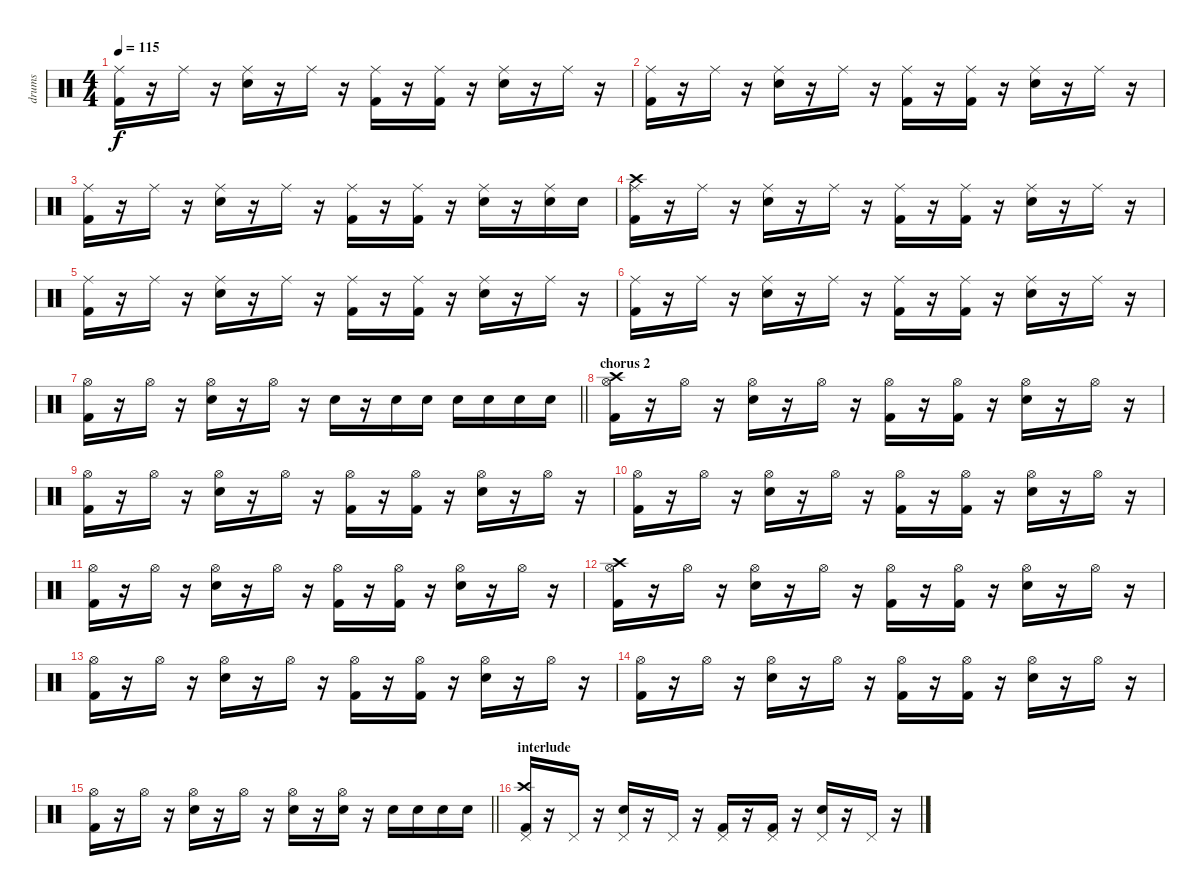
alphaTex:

\track ("drums" "drums") {instrument percussion}
\staff {score}
\articulation defaults
\ts (4 4)
\tempo 115
\clef neutral
\ks c
("Kick (hit) 2" "Ride (middle)").16{dy f} r.16 "Ride (middle)".16 r.16 ("Electric Snare (hit)" "Ride (middle)").16 r.16 "Ride (middle)".16 r.16 ("Kick (hit) 2" "Ride (middle)").16 r.16 ("Kick (hit) 2" "Ride (middle)").16 r.16 ("Electric Snare (hit)" "Ride (middle)").16 r.16 "Ride (middle)".16 r.16 |
("Kick (hit) 2" "Ride (middle)").16 r.16 "Ride (middle)".16 r.16 ("Electric Snare (hit)" "Ride (middle)").16 r.16 "Ride (middle)".16 r.16 ("Kick (hit) 2" "Ride (middle)").16 r.16 ("Kick (hit) 2" "Ride (middle)").16 r.16 ("Electric Snare (hit)" "Ride (middle)").16 r.16 "Ride (middle)".16 r.16 |
("Kick (hit) 2" "Ride (middle)").16 r.16 "Ride (middle)".16 r.16 ("Electric Snare (hit)" "Ride (middle)").16 r.16 "Ride (middle)".16 r.16 ("Kick (hit) 2" "Ride (middle)").16 r.16 ("Kick (hit) 2" "Ride (middle)").16 r.16 ("Electric Snare (hit)" "Ride (middle)").16 r.16 ("Electric Snare (hit)" "Ride (middle)").16 "Electric Snare (hit)".16 |
("Kick (hit) 2" "Ride (middle)" "Crash high (hit)").16 r.16 "Ride (middle)".16 r.16 ("Electric Snare (hit)" "Ride (middle)").16 r.16 "Ride (middle)".16 r.16 ("Kick (hit) 2" "Ride (middle)").16 r.16 ("Kick (hit) 2" "Ride (middle)").16 r.16 ("Electric Snare (hit)" "Ride (middle)").16 r.16 "Ride (middle)".16 r.16 |
("Kick (hit) 2" "Ride (middle)").16 r.16 "Ride (middle)".16 r.16 ("Electric Snare (hit)" "Ride (middle)").16 r.16 "Ride (middle)".16 r.16 ("Kick (hit) 2" "Ride (middle)").16 r.16 ("Kick (hit) 2" "Ride (middle)").16 r.16 ("Electric Snare (hit)" "Ride (middle)").16 r.16 "Ride (middle)".16 r.16 |
("Kick (hit) 2" "Ride (middle)").16 r.16 "Ride (middle)".16 r.16 ("Electric Snare (hit)" "Ride (middle)").16 r.16 "Ride (middle)".16 r.16 ("Kick (hit) 2" "Ride (middle)").16 r.16 ("Kick (hit) 2" "Ride (middle)").16 r.16 ("Electric Snare (hit)" "Ride (middle)").16 r.16 "Ride (middle)".16 r.16 |
\barLineRight lightlight
("Kick (hit) 2" "Hi-Hat (open)").16 r.16 "Hi-Hat (open)".16 r.16 ("Electric Snare (hit)" "Hi-Hat (open)").16 r.16 "Hi-Hat (open)".16 r.16 "Electric Snare (hit)".16 r.16 "Electric Snare (hit)".16 "Electric Snare (hit)".16 "Electric Snare (hit)".16 "Electric Snare (hit)".16 "Electric Snare (hit)".16 "Electric Snare (hit)".16 |
\section ("" "chorus 2")
("Kick (hit) 2" "Hi-Hat (open)" "Crash high (hit)").16 r.16 "Hi-Hat (open)".16 r.16 ("Electric Snare (hit)" "Hi-Hat (open)").16 r.16 "Hi-Hat (open)".16 r.16 ("Kick (hit) 2" "Hi-Hat (open)").16 r.16 ("Kick (hit) 2" "Hi-Hat (open)").16 r.16 ("Electric Snare (hit)" "Hi-Hat (open)").16 r.16 "Hi-Hat (open)".16 r.16 |
("Kick (hit) 2" "Hi-Hat (open)").16 r.16 "Hi-Hat (open)".16 r.16 ("Electric Snare (hit)" "Hi-Hat (open)").16 r.16 "Hi-Hat (open)".16 r.16 ("Kick (hit) 2" "Hi-Hat (open)").16 r.16 ("Kick (hit) 2" "Hi-Hat (open)").16 r.16 ("Electric Snare (hit)" "Hi-Hat (open)").16 r.16 "Hi-Hat (open)".16 r.16 |
("Kick (hit) 2" "Hi-Hat (open)").16 r.16 "Hi-Hat (open)".16 r.16 ("Electric Snare (hit)" "Hi-Hat (open)").16 r.16 "Hi-Hat (open)".16 r.16 ("Kick (hit) 2" "Hi-Hat (open)").16 r.16 ("Kick (hit) 2" "Hi-Hat (open)").16 r.16 ("Electric Snare (hit)" "Hi-Hat (open)").16 r.16 "Hi-Hat (open)".16 r.16 |
("Kick (hit) 2" "Hi-Hat (open)").16 r.16 "Hi-Hat (open)".16 r.16 ("Electric Snare (hit)" "Hi-Hat (open)").16 r.16 "Hi-Hat (open)".16 r.16 ("Kick (hit) 2" "Hi-Hat (open)").16 r.16 ("Kick (hit) 2" "Hi-Hat (open)").16 r.16 ("Electric Snare (hit)" "Hi-Hat (open)").16 r.16 "Hi-Hat (open)".16 r.16 |
("Kick (hit) 2" "Hi-Hat (open)" "Crash high (hit)").16 r.16 "Hi-Hat (open)".16 r.16 ("Electric Snare (hit)" "Hi-Hat (open)").16 r.16 "Hi-Hat (open)".16 r.16 ("Kick (hit) 2" "Hi-Hat (open)").16 r.16 ("Kick (hit) 2" "Hi-Hat (open)").16 r.16 ("Electric Snare (hit)" "Hi-Hat (open)").16 r.16 "Hi-Hat (open)".16 r.16 |
("Kick (hit) 2" "Hi-Hat (open)").16 r.16 "Hi-Hat (open)".16 r.16 ("Electric Snare (hit)" "Hi-Hat (open)").16 r.16 "Hi-Hat (open)".16 r.16 ("Kick (hit) 2" "Hi-Hat (open)").16 r.16 ("Kick (hit) 2" "Hi-Hat (open)").16 r.16 ("Electric Snare (hit)" "Hi-Hat (open)").16 r.16 "Hi-Hat (open)".16 r.16 |
("Kick (hit) 2" "Hi-Hat (open)").16 r.16 "Hi-Hat (open)".16 r.16 ("Electric Snare (hit)" "Hi-Hat (open)").16 r.16 "Hi-Hat (open)".16 r.16 ("Kick (hit) 2" "Hi-Hat (open)").16 r.16 ("Kick (hit) 2" "Hi-Hat (open)").16 r.16 ("Electric Snare (hit)" "Hi-Hat (open)").16 r.16 "Hi-Hat (open)".16 r.16 |
\barLineRight lightlight
("Kick (hit) 2" "Hi-Hat (open)").16 r.16 "Hi-Hat (open)".16 r.16 ("Electric Snare (hit)" "Hi-Hat (open)").16 r.16 "Hi-Hat (open)".16 r.16 ("Electric Snare (hit)" "Hi-Hat (open)").16 r.16 ("Electric Snare (hit)" "Hi-Hat (open)").16 r.16 "Electric Snare (hit)".16 "Electric Snare (hit)".16 "Electric Snare (hit)".16 "Electric Snare (hit)".16 |
\section ("" "interlude")
("Kick (hit) 2" "Pedal Hi-Hat (hit)" "Crash high (hit)").16 r.16 "Pedal Hi-Hat (hit)".16 r.16 ("Electric Snare (hit)" "Pedal Hi-Hat (hit)").16 r.16 "Pedal Hi-Hat (hit)".16 r.16 ("Kick (hit) 2" "Pedal Hi-Hat (hit)").16 r.16 ("Kick (hit) 2" "Pedal Hi-Hat (hit)").16 r.16 ("Electric Snare (hit)" "Pedal Hi-Hat (hit)").16 r.16 "Pedal Hi-Hat (hit)".16 r.16
